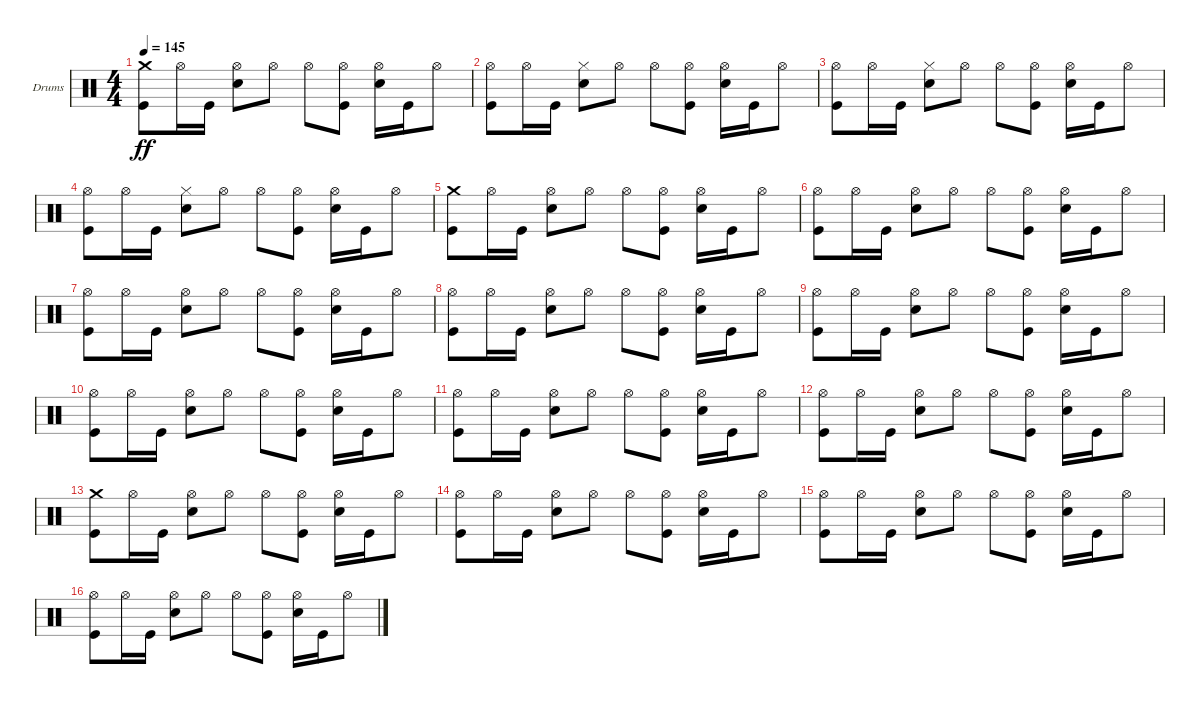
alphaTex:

\bracketExtendMode groupsimilarinstruments
\firstSystemTrackNameOrientation horizontal
\otherSystemsTrackNameOrientation horizontal
\track ("Drumkit" "Drums") {instrument percussion}
\staff {score}
\articulation defaults
\ts (4 4)
\tempo 145
\clef neutral
\ks c
("Crash medium (hit)" "Kick (hit)").8{dy ff} "Hi-Hat (open)".16 "Kick (hit)".16 ("Hi-Hat (open)" "Snare (hit) 2").8 "Hi-Hat (open)".8 "Hi-Hat (open)".8 ("Hi-Hat (open)" "Kick (hit)").8 ("Hi-Hat (open)" "Snare (hit) 2").16 "Kick (hit)".16 "Hi-Hat (open)".8 |
("Hi-Hat (open)" "Kick (hit)").8 "Hi-Hat (open)".16 "Kick (hit)".16 ("Hi-Hat (closed)" "Snare (hit) 2").8 "Hi-Hat (open)".8 "Hi-Hat (open)".8 ("Hi-Hat (open)" "Kick (hit)").8 ("Hi-Hat (open)" "Snare (hit) 2").16 "Kick (hit)".16 "Hi-Hat (open)".8 |
("Hi-Hat (open)" "Kick (hit)").8 "Hi-Hat (open)".16 "Kick (hit)".16 ("Hi-Hat (closed)" "Snare (hit) 2").8 "Hi-Hat (open)".8 "Hi-Hat (open)".8 ("Hi-Hat (open)" "Kick (hit)").8 ("Hi-Hat (open)" "Snare (hit) 2").16 "Kick (hit)".16 "Hi-Hat (open)".8 |
("Hi-Hat (open)" "Kick (hit)").8 "Hi-Hat (open)".16 "Kick (hit)".16 ("Hi-Hat (closed)" "Snare (hit) 2").8 "Hi-Hat (open)".8 "Hi-Hat (open)".8 ("Hi-Hat (open)" "Kick (hit)").8 ("Hi-Hat (open)" "Snare (hit) 2").16 "Kick (hit)".16 "Hi-Hat (open)".8 |
("Crash medium (hit)" "Kick (hit)").8 "Hi-Hat (open)".16 "Kick (hit)".16 ("Hi-Hat (open)" "Snare (hit) 2").8 "Hi-Hat (open)".8 "Hi-Hat (open)".8 ("Hi-Hat (open)" "Kick (hit)").8 ("Hi-Hat (open)" "Snare (hit) 2").16 "Kick (hit)".16 "Hi-Hat (open)".8 |
("Hi-Hat (open)" "Kick (hit)").8 "Hi-Hat (open)".16 "Kick (hit)".16 ("Hi-Hat (open)" "Snare (hit) 2").8 "Hi-Hat (open)".8 "Hi-Hat (open)".8 ("Hi-Hat (open)" "Kick (hit)").8 ("Hi-Hat (open)" "Snare (hit) 2").16 "Kick (hit)".16 "Hi-Hat (open)".8 |
("Hi-Hat (open)" "Kick (hit)").8 "Hi-Hat (open)".16 "Kick (hit)".16 ("Hi-Hat (open)" "Snare (hit) 2").8 "Hi-Hat (open)".8 "Hi-Hat (open)".8 ("Hi-Hat (open)" "Kick (hit)").8 ("Hi-Hat (open)" "Snare (hit) 2").16 "Kick (hit)".16 "Hi-Hat (open)".8 |
("Hi-Hat (open)" "Kick (hit)").8 "Hi-Hat (open)".16 "Kick (hit)".16 ("Hi-Hat (open)" "Snare (hit) 2").8 "Hi-Hat (open)".8 "Hi-Hat (open)".8 ("Hi-Hat (open)" "Kick (hit)").8 ("Hi-Hat (open)" "Snare (hit) 2").16 "Kick (hit)".16 "Hi-Hat (open)".8 |
("Hi-Hat (open)" "Kick (hit)").8 "Hi-Hat (open)".16 "Kick (hit)".16 ("Hi-Hat (open)" "Snare (hit) 2").8 "Hi-Hat (open)".8 "Hi-Hat (open)".8 ("Hi-Hat (open)" "Kick (hit)").8 ("Hi-Hat (open)" "Snare (hit) 2").16 "Kick (hit)".16 "Hi-Hat (open)".8 |
("Hi-Hat (open)" "Kick (hit)").8 "Hi-Hat (open)".16 "Kick (hit)".16 ("Hi-Hat (open)" "Snare (hit) 2").8 "Hi-Hat (open)".8 "Hi-Hat (open)".8 ("Hi-Hat (open)" "Kick (hit)").8 ("Hi-Hat (open)" "Snare (hit) 2").16 "Kick (hit)".16 "Hi-Hat (open)".8 |
("Hi-Hat (open)" "Kick (hit)").8 "Hi-Hat (open)".16 "Kick (hit)".16 ("Hi-Hat (open)" "Snare (hit) 2").8 "Hi-Hat (open)".8 "Hi-Hat (open)".8 ("Hi-Hat (open)" "Kick (hit)").8 ("Hi-Hat (open)" "Snare (hit) 2").16 "Kick (hit)".16 "Hi-Hat (open)".8 |
("Hi-Hat (open)" "Kick (hit)").8 "Hi-Hat (open)".16 "Kick (hit)".16 ("Hi-Hat (open)" "Snare (hit) 2").8 "Hi-Hat (open)".8 "Hi-Hat (open)".8 ("Hi-Hat (open)" "Kick (hit)").8 ("Hi-Hat (open)" "Snare (hit) 2").16 "Kick (hit)".16 "Hi-Hat (open)".8 |
("Crash medium (hit)" "Kick (hit)").8 "Hi-Hat (open)".16 "Kick (hit)".16 ("Hi-Hat (open)" "Snare (hit) 2").8 "Hi-Hat (open)".8 "Hi-Hat (open)".8 ("Hi-Hat (open)" "Kick (hit)").8 ("Hi-Hat (open)" "Snare (hit) 2").16 "Kick (hit)".16 "Hi-Hat (open)".8 |
("Hi-Hat (open)" "Kick (hit)").8 "Hi-Hat (open)".16 "Kick (hit)".16 ("Hi-Hat (open)" "Snare (hit) 2").8 "Hi-Hat (open)".8 "Hi-Hat (open)".8 ("Hi-Hat (open)" "Kick (hit)").8 ("Hi-Hat (open)" "Snare (hit) 2").16 "Kick (hit)".16 "Hi-Hat (open)".8 |
("Hi-Hat (open)" "Kick (hit)").8 "Hi-Hat (open)".16 "Kick (hit)".16 ("Hi-Hat (open)" "Snare (hit) 2").8 "Hi-Hat (open)".8 "Hi-Hat (open)".8 ("Hi-Hat (open)" "Kick (hit)").8 ("Hi-Hat (open)" "Snare (hit) 2").16 "Kick (hit)".16 "Hi-Hat (open)".8 |
("Hi-Hat (open)" "Kick (hit)").8 "Hi-Hat (open)".16 "Kick (hit)".16 ("Hi-Hat (open)" "Snare (hit) 2").8 "Hi-Hat (open)".8 "Hi-Hat (open)".8 ("Hi-Hat (open)" "Kick (hit)").8 ("Hi-Hat (open)" "Snare (hit) 2").16 "Kick (hit)".16 "Hi-Hat (open)".8
